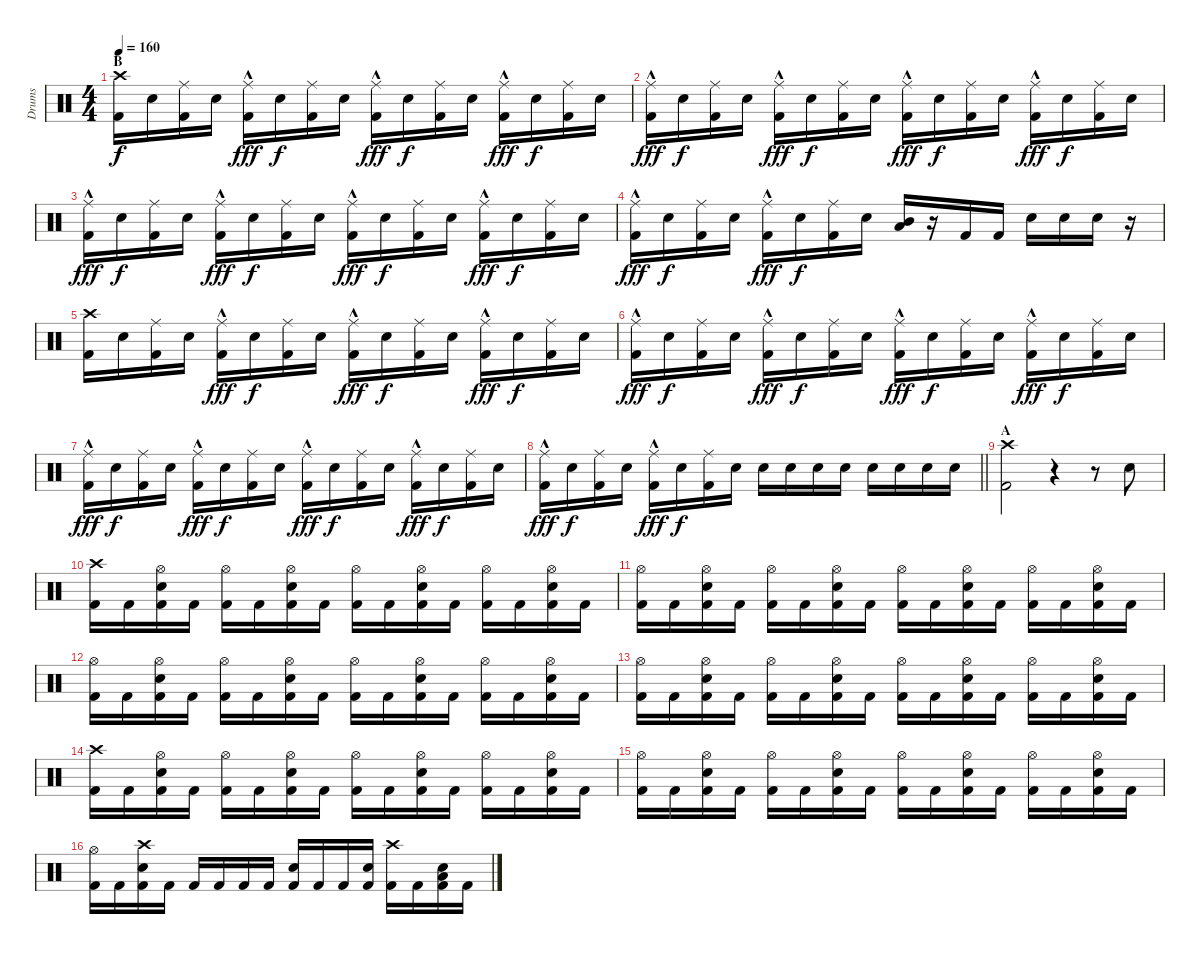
\track ("Drums" "Drums") {instrument percussion}
\staff {score}
\articulation defaults
\ts (4 4)
\section ("" "B")
\tempo 160
\clef neutral
\ks c
("Crash high (hit)" "Kick (hit) 2").16{dy f} "Snare (hit) 2".16 ("Ride (middle)" "Kick (hit) 2").16 "Snare (hit) 2".16 ("Ride (middle)"{hac} "Kick (hit) 2").16{dy fff} "Snare (hit) 2".16{dy f} ("Ride (middle)" "Kick (hit) 2").16 "Snare (hit) 2".16 ("Ride (middle)"{hac} "Kick (hit) 2").16{dy fff} "Snare (hit) 2".16{dy f} ("Ride (middle)" "Kick (hit) 2").16 "Snare (hit) 2".16 ("Ride (middle)"{hac} "Kick (hit) 2").16{dy fff} "Snare (hit) 2".16{dy f} ("Ride (middle)" "Kick (hit) 2").16 "Snare (hit) 2".16 |
("Ride (middle)"{hac} "Kick (hit) 2").16{dy fff} "Snare (hit) 2".16{dy f} ("Ride (middle)" "Kick (hit) 2").16 "Snare (hit) 2".16 ("Ride (middle)"{hac} "Kick (hit) 2").16{dy fff} "Snare (hit) 2".16{dy f} ("Ride (middle)" "Kick (hit) 2").16 "Snare (hit) 2".16 ("Ride (middle)"{hac} "Kick (hit) 2").16{dy fff} "Snare (hit) 2".16{dy f} ("Ride (middle)" "Kick (hit) 2").16 "Snare (hit) 2".16 ("Ride (middle)"{hac} "Kick (hit) 2").16{dy fff} "Snare (hit) 2".16{dy f} ("Ride (middle)" "Kick (hit) 2").16 "Snare (hit) 2".16 |
("Ride (middle)"{hac} "Kick (hit) 2").16{dy fff} "Snare (hit) 2".16{dy f} ("Ride (middle)" "Kick (hit) 2").16 "Snare (hit) 2".16 ("Ride (middle)"{hac} "Kick (hit) 2").16{dy fff} "Snare (hit) 2".16{dy f} ("Ride (middle)" "Kick (hit) 2").16 "Snare (hit) 2".16 ("Ride (middle)"{hac} "Kick (hit) 2").16{dy fff} "Snare (hit) 2".16{dy f} ("Ride (middle)" "Kick (hit) 2").16 "Snare (hit) 2".16 ("Ride (middle)"{hac} "Kick (hit) 2").16{dy fff} "Snare (hit) 2".16{dy f} ("Ride (middle)" "Kick (hit) 2").16 "Snare (hit) 2".16 |
("Ride (middle)"{hac} "Kick (hit) 2").16{dy fff} "Snare (hit) 2".16{dy f} ("Ride (middle)" "Kick (hit) 2").16 "Snare (hit) 2".16 ("Ride (middle)"{hac} "Kick (hit) 2").16{dy fff} "Snare (hit) 2".16{dy f} ("Ride (middle)" "Kick (hit) 2").16 "Snare (hit) 2".16 ("Low Tom (hit)" "Mid Tom (hit)").16 r.16 "Kick (hit) 2".16 "Kick (hit) 2".16 "Snare (hit) 2".16 "Snare (hit) 2".16 "Snare (hit) 2".16 r.16 |
("Crash high (hit)" "Kick (hit) 2").16 "Snare (hit) 2".16 ("Ride (middle)" "Kick (hit) 2").16 "Snare (hit) 2".16 ("Ride (middle)"{hac} "Kick (hit) 2").16{dy fff} "Snare (hit) 2".16{dy f} ("Ride (middle)" "Kick (hit) 2").16 "Snare (hit) 2".16 ("Ride (middle)"{hac} "Kick (hit) 2").16{dy fff} "Snare (hit) 2".16{dy f} ("Ride (middle)" "Kick (hit) 2").16 "Snare (hit) 2".16 ("Ride (middle)"{hac} "Kick (hit) 2").16{dy fff} "Snare (hit) 2".16{dy f} ("Ride (middle)" "Kick (hit) 2").16 "Snare (hit) 2".16 |
("Ride (middle)"{hac} "Kick (hit) 2").16{dy fff} "Snare (hit) 2".16{dy f} ("Ride (middle)" "Kick (hit) 2").16 "Snare (hit) 2".16 ("Ride (middle)"{hac} "Kick (hit) 2").16{dy fff} "Snare (hit) 2".16{dy f} ("Ride (middle)" "Kick (hit) 2").16 "Snare (hit) 2".16 ("Ride (middle)"{hac} "Kick (hit) 2").16{dy fff} "Snare (hit) 2".16{dy f} ("Ride (middle)" "Kick (hit) 2").16 "Snare (hit) 2".16 ("Ride (middle)"{hac} "Kick (hit) 2").16{dy fff} "Snare (hit) 2".16{dy f} ("Ride (middle)" "Kick (hit) 2").16 "Snare (hit) 2".16 |
("Ride (middle)"{hac} "Kick (hit) 2").16{dy fff} "Snare (hit) 2".16{dy f} ("Ride (middle)" "Kick (hit) 2").16 "Snare (hit) 2".16 ("Ride (middle)"{hac} "Kick (hit) 2").16{dy fff} "Snare (hit) 2".16{dy f} ("Ride (middle)" "Kick (hit) 2").16 "Snare (hit) 2".16 ("Ride (middle)"{hac} "Kick (hit) 2").16{dy fff} "Snare (hit) 2".16{dy f} ("Ride (middle)" "Kick (hit) 2").16 "Snare (hit) 2".16 ("Ride (middle)"{hac} "Kick (hit) 2").16{dy fff} "Snare (hit) 2".16{dy f} ("Ride (middle)" "Kick (hit) 2").16 "Snare (hit) 2".16 |
\barLineRight lightlight
("Ride (middle)"{hac} "Kick (hit) 2").16{dy fff} "Snare (hit) 2".16{dy f} ("Ride (middle)" "Kick (hit) 2").16 "Snare (hit) 2".16 ("Ride (middle)"{hac} "Kick (hit) 2").16{dy fff} "Snare (hit) 2".16{dy f} ("Ride (middle)" "Kick (hit) 2").16 "Snare (hit) 2".16 "Snare (hit) 2".16 "Snare (hit) 2".16 "Snare (hit) 2".16 "Snare (hit) 2".16 "Snare (hit) 2".16 "Snare (hit) 2".16 "Snare (hit) 2".16 "Snare (hit) 2".16 |
\section ("" "A")
("Crash high (hit)" "Kick (hit) 2").2 r.4 r.8 "Snare (hit) 2".8 |
("Crash high (hit)" "Kick (hit) 2").16 "Kick (hit) 2".16 ("Hi-Hat (open)" "Snare (hit) 2" "Kick (hit) 2").16 "Kick (hit) 2".16 ("Hi-Hat (open)" "Kick (hit) 2").16 "Kick (hit) 2".16 ("Hi-Hat (open)" "Snare (hit) 2" "Kick (hit) 2").16 "Kick (hit) 2".16 ("Hi-Hat (open)" "Kick (hit) 2").16 "Kick (hit) 2".16 ("Hi-Hat (open)" "Snare (hit) 2" "Kick (hit) 2").16 "Kick (hit) 2".16 ("Hi-Hat (open)" "Kick (hit) 2").16 "Kick (hit) 2".16 ("Hi-Hat (open)" "Snare (hit) 2" "Kick (hit) 2").16 "Kick (hit) 2".16 |
("Hi-Hat (open)" "Kick (hit) 2").16 "Kick (hit) 2".16 ("Hi-Hat (open)" "Snare (hit) 2" "Kick (hit) 2").16 "Kick (hit) 2".16 ("Hi-Hat (open)" "Kick (hit) 2").16 "Kick (hit) 2".16 ("Hi-Hat (open)" "Snare (hit) 2" "Kick (hit) 2").16 "Kick (hit) 2".16 ("Hi-Hat (open)" "Kick (hit) 2").16 "Kick (hit) 2".16 ("Hi-Hat (open)" "Snare (hit) 2" "Kick (hit) 2").16 "Kick (hit) 2".16 ("Hi-Hat (open)" "Kick (hit) 2").16 "Kick (hit) 2".16 ("Hi-Hat (open)" "Snare (hit) 2" "Kick (hit) 2").16 "Kick (hit) 2".16 |
("Hi-Hat (open)" "Kick (hit) 2").16 "Kick (hit) 2".16 ("Hi-Hat (open)" "Snare (hit) 2" "Kick (hit) 2").16 "Kick (hit) 2".16 ("Hi-Hat (open)" "Kick (hit) 2").16 "Kick (hit) 2".16 ("Hi-Hat (open)" "Snare (hit) 2" "Kick (hit) 2").16 "Kick (hit) 2".16 ("Hi-Hat (open)" "Kick (hit) 2").16 "Kick (hit) 2".16 ("Hi-Hat (open)" "Snare (hit) 2" "Kick (hit) 2").16 "Kick (hit) 2".16 ("Hi-Hat (open)" "Kick (hit) 2").16 "Kick (hit) 2".16 ("Hi-Hat (open)" "Snare (hit) 2" "Kick (hit) 2").16 "Kick (hit) 2".16 |
("Hi-Hat (open)" "Kick (hit) 2").16 "Kick (hit) 2".16 ("Hi-Hat (open)" "Snare (hit) 2" "Kick (hit) 2").16 "Kick (hit) 2".16 ("Hi-Hat (open)" "Kick (hit) 2").16 "Kick (hit) 2".16 ("Hi-Hat (open)" "Snare (hit) 2" "Kick (hit) 2").16 "Kick (hit) 2".16 ("Hi-Hat (open)" "Kick (hit) 2").16 "Kick (hit) 2".16 ("Hi-Hat (open)" "Snare (hit) 2" "Kick (hit) 2").16 "Kick (hit) 2".16 ("Hi-Hat (open)" "Kick (hit) 2").16 "Kick (hit) 2".16 ("Hi-Hat (open)" "Snare (hit) 2" "Kick (hit) 2").16 "Kick (hit) 2".16 |
("Crash high (hit)" "Kick (hit) 2").16 "Kick (hit) 2".16 ("Hi-Hat (open)" "Snare (hit) 2" "Kick (hit) 2").16 "Kick (hit) 2".16 ("Hi-Hat (open)" "Kick (hit) 2").16 "Kick (hit) 2".16 ("Hi-Hat (open)" "Snare (hit) 2" "Kick (hit) 2").16 "Kick (hit) 2".16 ("Hi-Hat (open)" "Kick (hit) 2").16 "Kick (hit) 2".16 ("Hi-Hat (open)" "Snare (hit) 2" "Kick (hit) 2").16 "Kick (hit) 2".16 ("Hi-Hat (open)" "Kick (hit) 2").16 "Kick (hit) 2".16 ("Hi-Hat (open)" "Snare (hit) 2" "Kick (hit) 2").16 "Kick (hit) 2".16 |
("Hi-Hat (open)" "Kick (hit) 2").16 "Kick (hit) 2".16 ("Hi-Hat (open)" "Snare (hit) 2" "Kick (hit) 2").16 "Kick (hit) 2".16 ("Hi-Hat (open)" "Kick (hit) 2").16 "Kick (hit) 2".16 ("Hi-Hat (open)" "Snare (hit) 2" "Kick (hit) 2").16 "Kick (hit) 2".16 ("Hi-Hat (open)" "Kick (hit) 2").16 "Kick (hit) 2".16 ("Hi-Hat (open)" "Snare (hit) 2" "Kick (hit) 2").16 "Kick (hit) 2".16 ("Hi-Hat (open)" "Kick (hit) 2").16 "Kick (hit) 2".16 ("Hi-Hat (open)" "Snare (hit) 2" "Kick (hit) 2").16 "Kick (hit) 2".16 |
("Hi-Hat (open)" "Kick (hit) 2").16 "Kick (hit) 2".16 ("Crash high (hit)" "Snare (hit) 2" "Kick (hit) 2").16 "Kick (hit) 2".16 "Kick (hit) 2".16 "Kick (hit) 2".16 "Kick (hit) 2".16 "Kick (hit) 2".16 ("Snare (hit) 2" "Kick (hit) 2").16 "Kick (hit) 2".16 "Kick (hit) 2".16 ("Snare (hit) 2" "Kick (hit) 2").16 ("Crash high (hit)" "Kick (hit) 2").16 "Kick (hit) 2".16 ("Low Tom (hit)" "Snare (hit) 2" "Kick (hit) 2").16 "Kick (hit) 2".16
